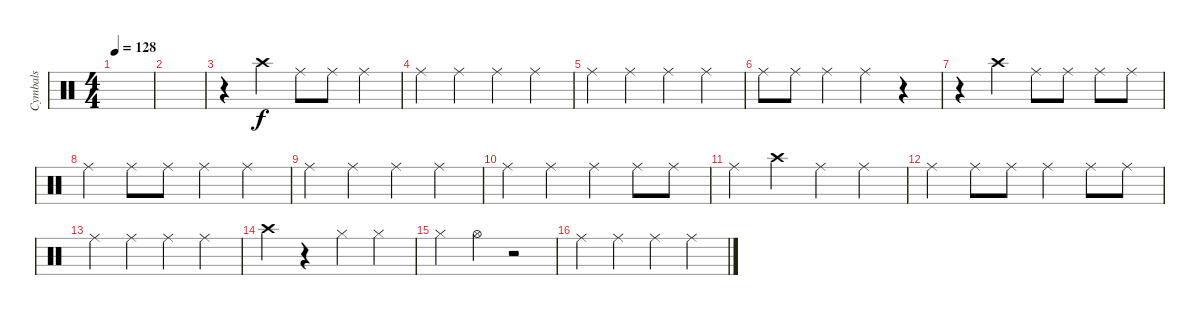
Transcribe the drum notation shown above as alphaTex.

\track ("Cymbals" "Cymbals") {instrument percussion}
\staff {score}
\articulation defaults
\ts (4 4)
\tempo 128
\clef neutral
\ks c
|
|
r.4 "Crash high (hit)".4 "Ride (middle)".8 "Ride (middle)".8 "Ride (middle)".4 |
"Ride (middle)".4 "Ride (middle)".4 "Ride (middle)".4 "Ride (middle)".4 |
"Ride (middle)".4 "Ride (middle)".4 "Ride (middle)".4 "Ride (middle)".4 |
"Ride (middle)".8 "Ride (middle)".8 "Ride (middle)".4 "Ride (middle)".4 r.4 |
r.4 "Crash high (hit)".4 "Ride (middle)".8 "Ride (middle)".8 "Ride (middle)".8 "Ride (middle)".8 |
"Ride (middle)".4 "Ride (middle)".8 "Ride (middle)".8 "Ride (middle)".4 "Ride (middle)".4 |
"Ride (middle)".4 "Ride (middle)".4 "Ride (middle)".4 "Ride (middle)".4 |
"Ride (middle)".4 "Ride (middle)".4 "Ride (middle)".4 "Ride (middle)".8 "Ride (middle)".8 |
"Ride (middle)".4 "Crash high (hit)".4 "Ride (middle)".4 "Ride (middle)".4 |
"Ride (middle)".4 "Ride (middle)".8 "Ride (middle)".8 "Ride (middle)".4 "Ride (middle)".8 "Ride (middle)".8 |
"Ride (middle)".4 "Ride (middle)".4 "Ride (middle)".4 "Ride (middle)".4 |
"Crash high (hit)".4 r.4 "Hi-Hat (closed)".4 "Hi-Hat (closed)".4 |
"Hi-Hat (closed)".4 "Hi-Hat (open)".4 r.2 |
"Ride (middle)".4 "Ride (middle)".4 "Ride (middle)".4 "Ride (middle)".4
